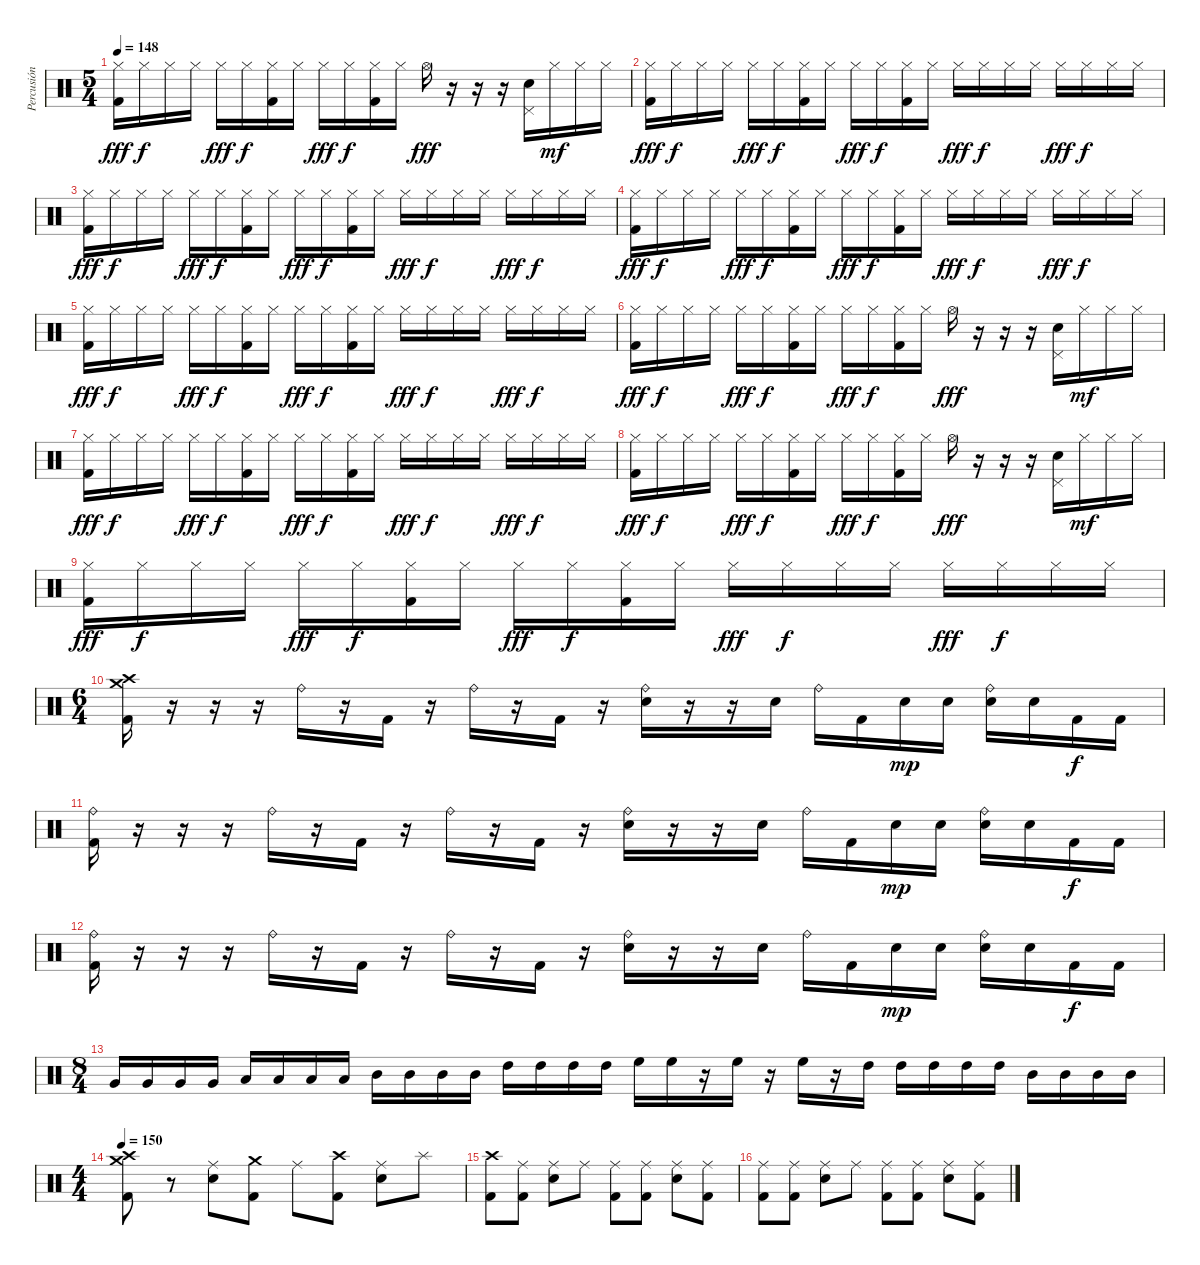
\track ("Percusión" "Percusión") {instrument percussion}
\staff {score}
\articulation defaults
\ts (5 4)
\tempo 148
\clef neutral
\ks c
("Hi-Hat (closed)" "Kick (hit) 2").16{dy fff} "Hi-Hat (closed)".16{dy f} "Hi-Hat (closed)".16 "Hi-Hat (closed)".16 "Hi-Hat (closed)".16{dy fff} "Hi-Hat (closed)".16{dy f} ("Hi-Hat (closed)" "Kick (hit) 2").16 "Hi-Hat (closed)".16 "Hi-Hat (closed)".16{dy fff} "Hi-Hat (closed)".16{dy f} ("Hi-Hat (closed)" "Kick (hit) 2").16 "Hi-Hat (closed)".16 "Hi-Hat (open)".16{dy fff} r.16 r.16 r.16 ("Pedal Hi-Hat (hit)" "Electric Snare (hit)").16 "Hi-Hat (closed)".16{dy mf} "Hi-Hat (closed)".16 "Hi-Hat (closed)".16 |
("Hi-Hat (closed)" "Kick (hit) 2").16{dy fff} "Hi-Hat (closed)".16{dy f} "Hi-Hat (closed)".16 "Hi-Hat (closed)".16 "Hi-Hat (closed)".16{dy fff} "Hi-Hat (closed)".16{dy f} ("Hi-Hat (closed)" "Kick (hit) 2").16 "Hi-Hat (closed)".16 "Hi-Hat (closed)".16{dy fff} "Hi-Hat (closed)".16{dy f} ("Hi-Hat (closed)" "Kick (hit) 2").16 "Hi-Hat (closed)".16 "Hi-Hat (closed)".16{dy fff} "Hi-Hat (closed)".16{dy f} "Hi-Hat (closed)".16 "Hi-Hat (closed)".16 "Hi-Hat (closed)".16{dy fff} "Hi-Hat (closed)".16{dy f} "Hi-Hat (closed)".16 "Hi-Hat (closed)".16 |
("Hi-Hat (closed)" "Kick (hit) 2").16{dy fff} "Hi-Hat (closed)".16{dy f} "Hi-Hat (closed)".16 "Hi-Hat (closed)".16 "Hi-Hat (closed)".16{dy fff} "Hi-Hat (closed)".16{dy f} ("Hi-Hat (closed)" "Kick (hit) 2").16 "Hi-Hat (closed)".16 "Hi-Hat (closed)".16{dy fff} "Hi-Hat (closed)".16{dy f} ("Hi-Hat (closed)" "Kick (hit) 2").16 "Hi-Hat (closed)".16 "Hi-Hat (closed)".16{dy fff} "Hi-Hat (closed)".16{dy f} "Hi-Hat (closed)".16 "Hi-Hat (closed)".16 "Hi-Hat (closed)".16{dy fff} "Hi-Hat (closed)".16{dy f} "Hi-Hat (closed)".16 "Hi-Hat (closed)".16 |
("Hi-Hat (closed)" "Kick (hit) 2").16{dy fff} "Hi-Hat (closed)".16{dy f} "Hi-Hat (closed)".16 "Hi-Hat (closed)".16 "Hi-Hat (closed)".16{dy fff} "Hi-Hat (closed)".16{dy f} ("Hi-Hat (closed)" "Kick (hit) 2").16 "Hi-Hat (closed)".16 "Hi-Hat (closed)".16{dy fff} "Hi-Hat (closed)".16{dy f} ("Hi-Hat (closed)" "Kick (hit) 2").16 "Hi-Hat (closed)".16 "Hi-Hat (closed)".16{dy fff} "Hi-Hat (closed)".16{dy f} "Hi-Hat (closed)".16 "Hi-Hat (closed)".16 "Hi-Hat (closed)".16{dy fff} "Hi-Hat (closed)".16{dy f} "Hi-Hat (closed)".16 "Hi-Hat (closed)".16 |
("Hi-Hat (closed)" "Kick (hit) 2").16{dy fff} "Hi-Hat (closed)".16{dy f} "Hi-Hat (closed)".16 "Hi-Hat (closed)".16 "Hi-Hat (closed)".16{dy fff} "Hi-Hat (closed)".16{dy f} ("Hi-Hat (closed)" "Kick (hit) 2").16 "Hi-Hat (closed)".16 "Hi-Hat (closed)".16{dy fff} "Hi-Hat (closed)".16{dy f} ("Hi-Hat (closed)" "Kick (hit) 2").16 "Hi-Hat (closed)".16 "Hi-Hat (closed)".16{dy fff} "Hi-Hat (closed)".16{dy f} "Hi-Hat (closed)".16 "Hi-Hat (closed)".16 "Hi-Hat (closed)".16{dy fff} "Hi-Hat (closed)".16{dy f} "Hi-Hat (closed)".16 "Hi-Hat (closed)".16 |
("Hi-Hat (closed)" "Kick (hit) 2").16{dy fff} "Hi-Hat (closed)".16{dy f} "Hi-Hat (closed)".16 "Hi-Hat (closed)".16 "Hi-Hat (closed)".16{dy fff} "Hi-Hat (closed)".16{dy f} ("Hi-Hat (closed)" "Kick (hit) 2").16 "Hi-Hat (closed)".16 "Hi-Hat (closed)".16{dy fff} "Hi-Hat (closed)".16{dy f} ("Hi-Hat (closed)" "Kick (hit) 2").16 "Hi-Hat (closed)".16 "Hi-Hat (open)".16{dy fff} r.16 r.16 r.16 ("Pedal Hi-Hat (hit)" "Electric Snare (hit)").16 "Hi-Hat (closed)".16{dy mf} "Hi-Hat (closed)".16 "Hi-Hat (closed)".16 |
("Hi-Hat (closed)" "Kick (hit) 2").16{dy fff} "Hi-Hat (closed)".16{dy f} "Hi-Hat (closed)".16 "Hi-Hat (closed)".16 "Hi-Hat (closed)".16{dy fff} "Hi-Hat (closed)".16{dy f} ("Hi-Hat (closed)" "Kick (hit) 2").16 "Hi-Hat (closed)".16 "Hi-Hat (closed)".16{dy fff} "Hi-Hat (closed)".16{dy f} ("Hi-Hat (closed)" "Kick (hit) 2").16 "Hi-Hat (closed)".16 "Hi-Hat (closed)".16{dy fff} "Hi-Hat (closed)".16{dy f} "Hi-Hat (closed)".16 "Hi-Hat (closed)".16 "Hi-Hat (closed)".16{dy fff} "Hi-Hat (closed)".16{dy f} "Hi-Hat (closed)".16 "Hi-Hat (closed)".16 |
("Hi-Hat (closed)" "Kick (hit) 2").16{dy fff} "Hi-Hat (closed)".16{dy f} "Hi-Hat (closed)".16 "Hi-Hat (closed)".16 "Hi-Hat (closed)".16{dy fff} "Hi-Hat (closed)".16{dy f} ("Hi-Hat (closed)" "Kick (hit) 2").16 "Hi-Hat (closed)".16 "Hi-Hat (closed)".16{dy fff} "Hi-Hat (closed)".16{dy f} ("Hi-Hat (closed)" "Kick (hit) 2").16 "Hi-Hat (closed)".16 "Hi-Hat (open)".16{dy fff} r.16 r.16 r.16 ("Pedal Hi-Hat (hit)" "Electric Snare (hit)").16 "Hi-Hat (closed)".16{dy mf} "Hi-Hat (closed)".16 "Hi-Hat (closed)".16 |
("Hi-Hat (closed)" "Kick (hit) 2").16{dy fff} "Hi-Hat (closed)".16{dy f} "Hi-Hat (closed)".16 "Hi-Hat (closed)".16 "Hi-Hat (closed)".16{dy fff} "Hi-Hat (closed)".16{dy f} ("Hi-Hat (closed)" "Kick (hit) 2").16 "Hi-Hat (closed)".16 "Hi-Hat (closed)".16{dy fff} "Hi-Hat (closed)".16{dy f} ("Hi-Hat (closed)" "Kick (hit) 2").16 "Hi-Hat (closed)".16 "Hi-Hat (closed)".16{dy fff} "Hi-Hat (closed)".16{dy f} "Hi-Hat (closed)".16 "Hi-Hat (closed)".16 "Hi-Hat (closed)".16{dy fff} "Hi-Hat (closed)".16{dy f} "Hi-Hat (closed)".16 "Hi-Hat (closed)".16 |
\ts (6 4)
("Crash medium (hit)" "Crash high (hit)" "Kick (hit) 2").16 r.16 r.16 r.16 "Ride (bell)".16 r.16 "Kick (hit) 2".16 r.16 "Ride (bell)".16 r.16 "Kick (hit) 2".16 r.16 ("Ride (bell)" "Electric Snare (hit)").16 r.16 r.16 "Electric Snare (hit)".16 "Ride (bell)".16 "Kick (hit) 2".16 "Electric Snare (hit)".16{dy mp} "Electric Snare (hit)".16 ("Ride (bell)" "Electric Snare (hit)").16 "Electric Snare (hit)".16 "Kick (hit) 2".16{dy f} "Kick (hit) 2".16 |
("Ride (bell)" "Kick (hit) 2").16 r.16 r.16 r.16 "Ride (bell)".16 r.16 "Kick (hit) 2".16 r.16 "Ride (bell)".16 r.16 "Kick (hit) 2".16 r.16 ("Ride (bell)" "Electric Snare (hit)").16 r.16 r.16 "Electric Snare (hit)".16 "Ride (bell)".16 "Kick (hit) 2".16 "Electric Snare (hit)".16{dy mp} "Electric Snare (hit)".16 ("Ride (bell)" "Electric Snare (hit)").16 "Electric Snare (hit)".16 "Kick (hit) 2".16{dy f} "Kick (hit) 2".16 |
("Ride (bell)" "Kick (hit) 2").16 r.16 r.16 r.16 "Ride (bell)".16 r.16 "Kick (hit) 2".16 r.16 "Ride (bell)".16 r.16 "Kick (hit) 2".16 r.16 ("Ride (bell)" "Electric Snare (hit)").16 r.16 r.16 "Electric Snare (hit)".16 "Ride (bell)".16 "Kick (hit) 2".16 "Electric Snare (hit)".16{dy mp} "Electric Snare (hit)".16 ("Ride (bell)" "Electric Snare (hit)").16 "Electric Snare (hit)".16 "Kick (hit) 2".16{dy f} "Kick (hit) 2".16 |
\ts (8 4)
"Very Low Tom (hit)".16 "Very Low Tom (hit)".16 "Very Low Tom (hit)".16 "Very Low Tom (hit)".16 "Low Tom (hit)".16 "Low Tom (hit)".16 "Low Tom (hit)".16 "Low Tom (hit)".16 "Mid Tom (hit)".16 "Mid Tom (hit)".16 "Mid Tom (hit)".16 "Mid Tom (hit)".16 "High Tom (hit)".16 "High Tom (hit)".16 "High Tom (hit)".16 "High Tom (hit)".16 "High Floor Tom (hit)".16 "High Floor Tom (hit)".16 r.16 "High Floor Tom (hit)".16 r.16 "High Floor Tom (hit)".16 r.16 "High Tom (hit)".16 "High Tom (hit)".16 "High Tom (hit)".16 "High Tom (hit)".16 "High Tom (hit)".16 "Mid Tom (hit)".16 "Mid Tom (hit)".16 "Mid Tom (hit)".16 "Mid Tom (hit)".16 |
\ts (4 4)
\tempo 150
("Crash high (hit)" "Crash medium (hit)" "Kick (hit) 2").8 r.8 ("Ride (middle)" "Electric Snare (hit)").8 ("Crash medium (hit)" "Kick (hit) 2").8 "Ride (middle)".8 ("Crash high (hit)" "Kick (hit) 2").8 ("Ride (middle)" "Electric Snare (hit)").8 "Splash (hit)".8 |
("Crash high (hit)" "Kick (hit) 2").8 ("Ride (middle)" "Kick (hit) 2").8 ("Ride (middle)" "Electric Snare (hit)").8 "Ride (middle)".8 ("Ride (middle)" "Kick (hit) 2").8 ("Ride (middle)" "Kick (hit) 2").8 ("Ride (middle)" "Electric Snare (hit)").8 ("Ride (middle)" "Kick (hit) 2").8 |
("Ride (middle)" "Kick (hit) 2").8 ("Ride (middle)" "Kick (hit) 2").8 ("Ride (middle)" "Electric Snare (hit)").8 "Ride (middle)".8 ("Ride (middle)" "Kick (hit) 2").8 ("Ride (middle)" "Kick (hit) 2").8 ("Ride (middle)" "Electric Snare (hit)").8 ("Ride (middle)" "Kick (hit) 2").8
